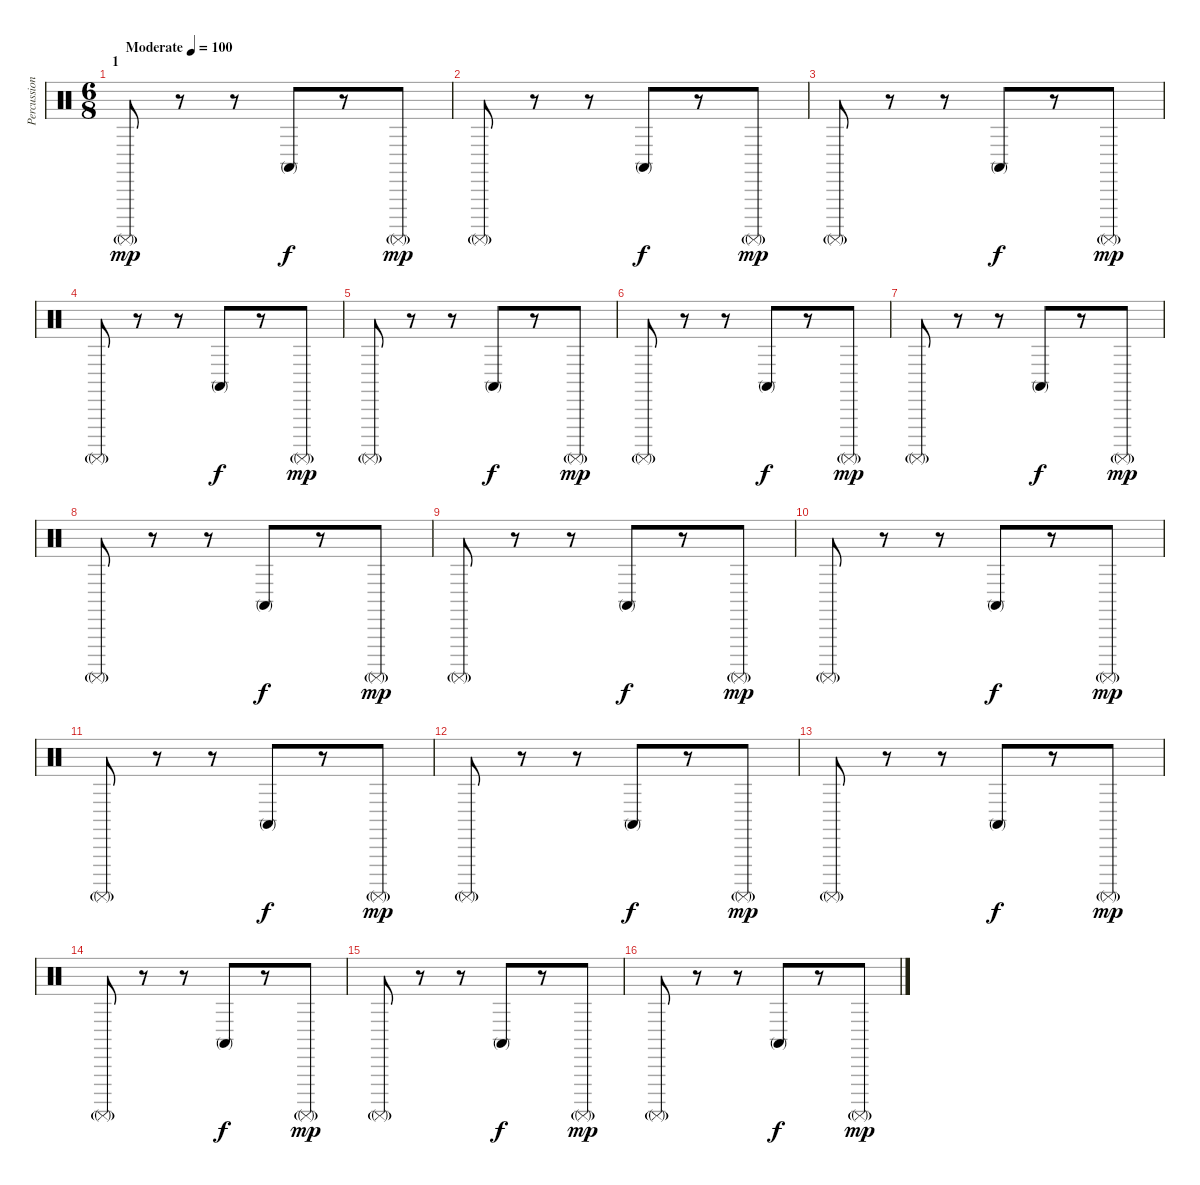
\track ("Percussion" "Percussion") {instrument percussion}
\staff {score}
\articulation defaults
\ts (6 8)
\section ("" "1")
\tempo (100 "Moderate")
\clef neutral
\ks c "Surdo (mute)"{g}.8{dy mp}
r.8 r.8 "Conga high (mute)".8{dy f} r.8 "Surdo (mute)"{g}.8{dy mp} |
"Surdo (mute)"{g}.8 r.8 r.8 "Conga high (mute)".8{dy f} r.8 "Surdo (mute)"{g}.8{dy mp} |
"Surdo (mute)"{g}.8 r.8 r.8 "Conga high (mute)".8{dy f} r.8 "Surdo (mute)"{g}.8{dy mp} |
"Surdo (mute)"{g}.8 r.8 r.8 "Conga high (mute)".8{dy f} r.8 "Surdo (mute)"{g}.8{dy mp} |
"Surdo (mute)"{g}.8 r.8 r.8 "Conga high (mute)".8{dy f} r.8 "Surdo (mute)"{g}.8{dy mp} |
"Surdo (mute)"{g}.8 r.8 r.8 "Conga high (mute)".8{dy f} r.8 "Surdo (mute)"{g}.8{dy mp} |
"Surdo (mute)"{g}.8 r.8 r.8 "Conga high (mute)".8{dy f} r.8 "Surdo (mute)"{g}.8{dy mp} |
"Surdo (mute)"{g}.8 r.8 r.8 "Conga high (mute)".8{dy f} r.8 "Surdo (mute)"{g}.8{dy mp} |
"Surdo (mute)"{g}.8 r.8 r.8 "Conga high (mute)".8{dy f} r.8 "Surdo (mute)"{g}.8{dy mp} |
"Surdo (mute)"{g}.8 r.8 r.8 "Conga high (mute)".8{dy f} r.8 "Surdo (mute)"{g}.8{dy mp} |
"Surdo (mute)"{g}.8 r.8 r.8 "Conga high (mute)".8{dy f} r.8 "Surdo (mute)"{g}.8{dy mp} |
"Surdo (mute)"{g}.8 r.8 r.8 "Conga high (mute)".8{dy f} r.8 "Surdo (mute)"{g}.8{dy mp} |
"Surdo (mute)"{g}.8 r.8 r.8 "Conga high (mute)".8{dy f} r.8 "Surdo (mute)"{g}.8{dy mp} |
"Surdo (mute)"{g}.8 r.8 r.8 "Conga high (mute)".8{dy f} r.8 "Surdo (mute)"{g}.8{dy mp} |
"Surdo (mute)"{g}.8 r.8 r.8 "Conga high (mute)".8{dy f} r.8 "Surdo (mute)"{g}.8{dy mp} |
"Surdo (mute)"{g}.8 r.8 r.8 "Conga high (mute)".8{dy f} r.8 "Surdo (mute)"{g}.8{dy mp}
